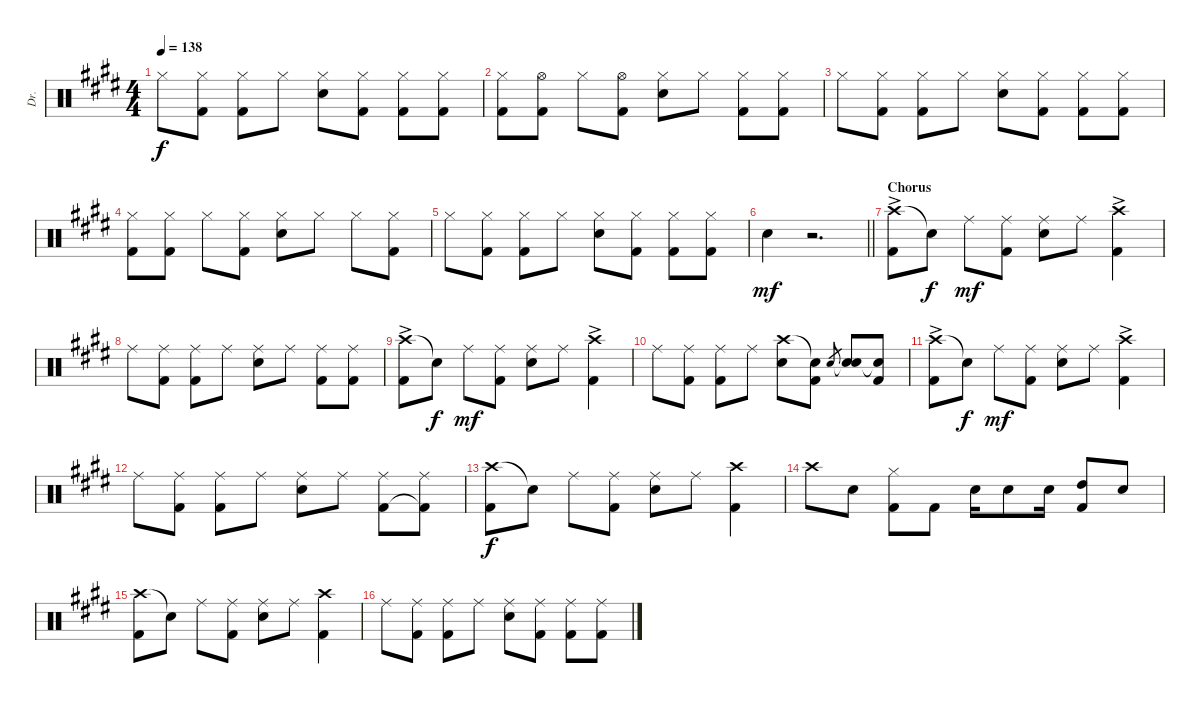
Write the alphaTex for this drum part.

\track ("Dr." "Dr.") {instrument percussion}
\staff {score}
\articulation defaults
\ts (4 4)
\tempo 138
\clef neutral
\ks e "Hi-Hat (closed)".8{dy f}
("Hi-Hat (closed)" "Kick (hit) 2").8 ("Hi-Hat (closed)" "Kick (hit) 2").8 "Hi-Hat (closed)".8 ("Hi-Hat (closed)" "Snare (hit) 2").8 ("Hi-Hat (closed)" "Kick (hit) 2").8 ("Hi-Hat (closed)" "Kick (hit) 2").8 ("Hi-Hat (closed)" "Kick (hit) 2").8 |
("Hi-Hat (closed)" "Kick (hit) 2").8 ("Hi-Hat (open)" "Kick (hit) 2").8 "Hi-Hat (closed)".8 ("Hi-Hat (open)" "Kick (hit) 2").8 ("Hi-Hat (closed)" "Snare (hit) 2").8 "Hi-Hat (closed)".8 ("Hi-Hat (closed)" "Kick (hit) 2").8 ("Hi-Hat (closed)" "Kick (hit) 2").8 |
"Hi-Hat (closed)".8 ("Hi-Hat (closed)" "Kick (hit) 2").8 ("Hi-Hat (closed)" "Kick (hit) 2").8 "Hi-Hat (closed)".8 ("Hi-Hat (closed)" "Snare (hit) 2").8 ("Hi-Hat (closed)" "Kick (hit) 2").8 ("Hi-Hat (closed)" "Kick (hit) 2").8 ("Hi-Hat (closed)" "Kick (hit) 2").8 |
("Hi-Hat (closed)" "Kick (hit) 2").8 ("Hi-Hat (closed)" "Kick (hit) 2").8 "Hi-Hat (closed)".8 ("Hi-Hat (closed)" "Kick (hit) 2").8 ("Hi-Hat (closed)" "Snare (hit) 2").8 "Hi-Hat (closed)".8 "Hi-Hat (closed)".8 ("Hi-Hat (closed)" "Kick (hit) 2").8 |
"Hi-Hat (closed)".8 ("Hi-Hat (closed)" "Kick (hit) 2").8 ("Hi-Hat (closed)" "Kick (hit) 2").8 "Hi-Hat (closed)".8 ("Hi-Hat (closed)" "Snare (hit) 2").8 ("Hi-Hat (closed)" "Kick (hit) 2").8 ("Hi-Hat (closed)" "Kick (hit) 2").8 ("Hi-Hat (closed)" "Kick (hit) 2").8 |
\barLineRight lightlight "Snare (hit) 2".4{dy mf}
r.2{d} |
\section ("" "Chorus")
("Crash high (hit)"{ac} "Kick (hit) 2").8 "Snare (hit)"{t}.8{dy f} "Ride (middle)".8{dy mf} ("Ride (middle)" "Kick (hit) 2").8 ("Ride (middle)" "Snare (hit) 2").8 "Ride (middle)".8 ("Crash high (hit)"{ac} "Kick (hit) 2").4 |
"Ride (middle)".8 ("Ride (middle)" "Kick (hit) 2").8 ("Ride (middle)" "Kick (hit) 2").8 "Ride (middle)".8 ("Ride (middle)" "Snare (hit) 2").8 "Ride (middle)".8 ("Ride (middle)" "Kick (hit) 2").8 ("Ride (middle)" "Kick (hit) 2").8 |
("Crash high (hit)"{ac} "Kick (hit) 2").8 "Snare (hit)"{t}.8{dy f} "Ride (middle)".8{dy mf} ("Ride (middle)" "Kick (hit) 2").8 ("Ride (middle)" "Snare (hit) 2").8 "Ride (middle)".8 ("Crash high (hit)"{ac} "Kick (hit) 2").4 |
"Ride (middle)".8 ("Ride (middle)" "Kick (hit) 2").8 ("Ride (middle)" "Kick (hit) 2").8 "Ride (middle)".8 ("Crash high (hit)" "Snare (hit) 2").8 ("Snare (hit)"{t} "Kick (hit) 2").8 "Snare (hit) 2".8{gr} ("Snare (hit)"{t} "Snare (hit) 2").8 ("Snare (hit)"{t} "Kick (hit) 2").8 |
("Crash high (hit)"{ac} "Kick (hit) 2").8 "Snare (hit)"{t}.8{dy f} "Ride (middle)".8{dy mf} ("Ride (middle)" "Kick (hit) 2").8 ("Ride (middle)" "Snare (hit) 2").8 "Ride (middle)".8 ("Crash high (hit)"{ac} "Kick (hit) 2").4 |
"Ride (middle)".8 ("Ride (middle)" "Kick (hit) 2").8 ("Ride (middle)" "Kick (hit) 2").8 "Ride (middle)".8 ("Ride (middle)" "Snare (hit) 2").8 "Ride (middle)".8 ("Ride (middle)" "Kick (hit) 2").8 ("Ride (middle)" "Kick (hit) 2"{t}).8 |
("Crash high (hit)" "Kick (hit) 2").8{dy f} "Snare (hit)"{t}.8 "Ride (middle)".8 ("Ride (middle)" "Kick (hit) 2").8 ("Ride (middle)" "Snare (hit) 2").8 "Ride (middle)".8 ("Crash high (hit)" "Kick (hit) 2").4 |
"Crash high (hit)".8 "Snare (hit) 2".8 ("Hi-Hat (closed)" "Kick (hit) 2").8 "Kick (hit) 2".8 "Snare (hit) 2".16 "Snare (hit) 2".8 "Snare (hit) 2".16 ("High Tom (hit)" "Kick (hit) 2").8 "Snare (hit) 2".8 |
("Crash high (hit)" "Kick (hit) 2").8 "Snare (hit)"{t}.8 "Ride (middle)".8 ("Ride (middle)" "Kick (hit) 2").8 ("Ride (middle)" "Snare (hit) 2").8 "Ride (middle)".8 ("Crash high (hit)" "Kick (hit) 2").4 |
"Ride (middle)".8 ("Ride (middle)" "Kick (hit) 2").8 ("Ride (middle)" "Kick (hit) 2").8 "Ride (middle)".8 ("Ride (middle)" "Snare (hit) 2").8 ("Ride (middle)" "Kick (hit) 2").8 ("Ride (middle)" "Kick (hit) 2").8 ("Ride (middle)" "Kick (hit) 2").8
